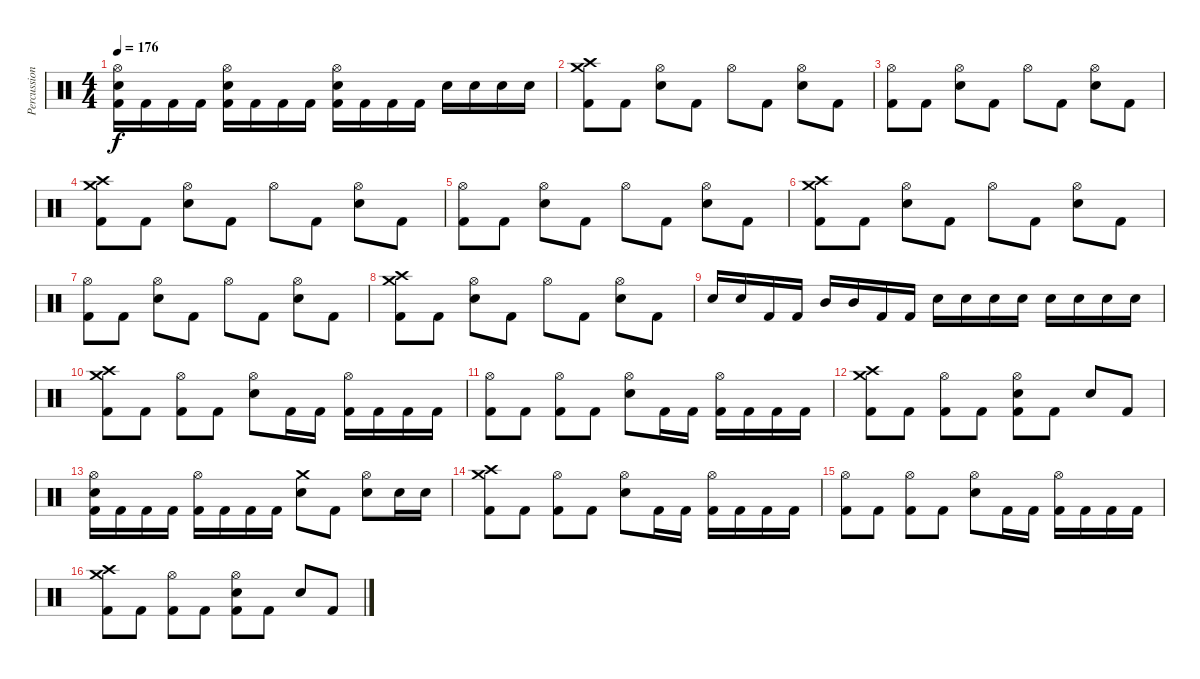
\track ("Percussion" "Percussion") {instrument percussion}
\staff {score}
\articulation defaults
\ts (4 4)
\tempo 176
\clef neutral
\ks c
("Hi-Hat (open)" "Snare (hit) 2" "Kick (hit) 2").16{dy f} "Kick (hit) 2".16 "Kick (hit) 2".16 "Kick (hit) 2".16 ("Hi-Hat (open)" "Snare (hit) 2" "Kick (hit) 2").16 "Kick (hit) 2".16 "Kick (hit) 2".16 "Kick (hit) 2".16 ("Hi-Hat (open)" "Snare (hit) 2" "Kick (hit) 2").16 "Kick (hit) 2".16 "Kick (hit) 2".16 "Kick (hit) 2".16 "Snare (hit) 2".16 "Snare (hit) 2".16 "Snare (hit) 2".16 "Snare (hit) 2".16 |
("Crash high (hit)" "Crash medium (hit)" "Kick (hit) 2").8 "Kick (hit) 2".8 ("Hi-Hat (open)" "Snare (hit) 2").8 "Kick (hit) 2".8 "Hi-Hat (open)".8 "Kick (hit) 2".8 ("Hi-Hat (open)" "Snare (hit) 2").8 "Kick (hit) 2".8 |
("Hi-Hat (open)" "Kick (hit) 2").8 "Kick (hit) 2".8 ("Hi-Hat (open)" "Snare (hit) 2").8 "Kick (hit) 2".8 "Hi-Hat (open)".8 "Kick (hit) 2".8 ("Hi-Hat (open)" "Snare (hit) 2").8 "Kick (hit) 2".8 |
("Crash high (hit)" "Crash medium (hit)" "Kick (hit) 2").8 "Kick (hit) 2".8 ("Hi-Hat (open)" "Snare (hit) 2").8 "Kick (hit) 2".8 "Hi-Hat (open)".8 "Kick (hit) 2".8 ("Hi-Hat (open)" "Snare (hit) 2").8 "Kick (hit) 2".8 |
("Hi-Hat (open)" "Kick (hit) 2").8 "Kick (hit) 2".8 ("Hi-Hat (open)" "Snare (hit) 2").8 "Kick (hit) 2".8 "Hi-Hat (open)".8 "Kick (hit) 2".8 ("Hi-Hat (open)" "Snare (hit) 2").8 "Kick (hit) 2".8 |
("Crash high (hit)" "Crash medium (hit)" "Kick (hit) 2").8 "Kick (hit) 2".8 ("Hi-Hat (open)" "Snare (hit) 2").8 "Kick (hit) 2".8 "Hi-Hat (open)".8 "Kick (hit) 2".8 ("Hi-Hat (open)" "Snare (hit) 2").8 "Kick (hit) 2".8 |
("Hi-Hat (open)" "Kick (hit) 2").8 "Kick (hit) 2".8 ("Hi-Hat (open)" "Snare (hit) 2").8 "Kick (hit) 2".8 "Hi-Hat (open)".8 "Kick (hit) 2".8 ("Hi-Hat (open)" "Snare (hit) 2").8 "Kick (hit) 2".8 |
("Crash high (hit)" "Crash medium (hit)" "Kick (hit) 2").8 "Kick (hit) 2".8 ("Hi-Hat (open)" "Snare (hit) 2").8 "Kick (hit) 2".8 "Hi-Hat (open)".8 "Kick (hit) 2".8 ("Hi-Hat (open)" "Snare (hit) 2").8 "Kick (hit) 2".8 |
"Snare (hit) 2".16 "Snare (hit) 2".16 "Kick (hit) 2".16 "Kick (hit) 2".16 "Mid Tom (hit)".16 "Mid Tom (hit)".16 "Kick (hit) 2".16 "Kick (hit) 2".16 "Snare (hit) 2".16 "Snare (hit) 2".16 "Snare (hit) 2".16 "Snare (hit) 2".16 "Snare (hit) 2".16 "Snare (hit) 2".16 "Snare (hit) 2".16 "Snare (hit) 2".16 |
("Crash high (hit)" "Crash medium (hit)" "Kick (hit) 2").8 "Kick (hit) 2".8 ("Hi-Hat (open)" "Kick (hit) 2").8 "Kick (hit) 2".8 ("Hi-Hat (open)" "Snare (hit) 2").8 "Kick (hit) 2".16 "Kick (hit) 2".16 ("Hi-Hat (open)" "Kick (hit) 2").16 "Kick (hit) 2".16 "Kick (hit) 2".16 "Kick (hit) 2".16 |
("Hi-Hat (open)" "Kick (hit) 2").8 "Kick (hit) 2".8 ("Hi-Hat (open)" "Kick (hit) 2").8 "Kick (hit) 2".8 ("Hi-Hat (open)" "Snare (hit) 2").8 "Kick (hit) 2".16 "Kick (hit) 2".16 ("Hi-Hat (open)" "Kick (hit) 2").16 "Kick (hit) 2".16 "Kick (hit) 2".16 "Kick (hit) 2".16 |
("Crash high (hit)" "Crash medium (hit)" "Kick (hit) 2").8 "Kick (hit) 2".8 ("Hi-Hat (open)" "Kick (hit) 2").8 "Kick (hit) 2".8 ("Hi-Hat (open)" "Snare (hit) 2" "Kick (hit) 2").8 "Kick (hit) 2".8 "Snare (hit) 2".8 "Kick (hit) 2".8 |
("Hi-Hat (open)" "Snare (hit) 2" "Kick (hit) 2").16 "Kick (hit) 2".16 "Kick (hit) 2".16 "Kick (hit) 2".16 ("Hi-Hat (open)" "Kick (hit) 2").16 "Kick (hit) 2".16 "Kick (hit) 2".16 "Kick (hit) 2".16 ("Crash medium (hit)" "Snare (hit) 2").8 "Kick (hit) 2".8 ("Hi-Hat (open)" "Snare (hit) 2").8 "Snare (hit) 2".16 "Snare (hit) 2".16 |
("Crash high (hit)" "Crash medium (hit)" "Kick (hit) 2").8 "Kick (hit) 2".8 ("Hi-Hat (open)" "Kick (hit) 2").8 "Kick (hit) 2".8 ("Hi-Hat (open)" "Snare (hit) 2").8 "Kick (hit) 2".16 "Kick (hit) 2".16 ("Hi-Hat (open)" "Kick (hit) 2").16 "Kick (hit) 2".16 "Kick (hit) 2".16 "Kick (hit) 2".16 |
("Hi-Hat (open)" "Kick (hit) 2").8 "Kick (hit) 2".8 ("Hi-Hat (open)" "Kick (hit) 2").8 "Kick (hit) 2".8 ("Hi-Hat (open)" "Snare (hit) 2").8 "Kick (hit) 2".16 "Kick (hit) 2".16 ("Hi-Hat (open)" "Kick (hit) 2").16 "Kick (hit) 2".16 "Kick (hit) 2".16 "Kick (hit) 2".16 |
("Crash high (hit)" "Crash medium (hit)" "Kick (hit) 2").8 "Kick (hit) 2".8 ("Hi-Hat (open)" "Kick (hit) 2").8 "Kick (hit) 2".8 ("Hi-Hat (open)" "Snare (hit) 2" "Kick (hit) 2").8 "Kick (hit) 2".8 "Snare (hit) 2".8 "Kick (hit) 2".8
